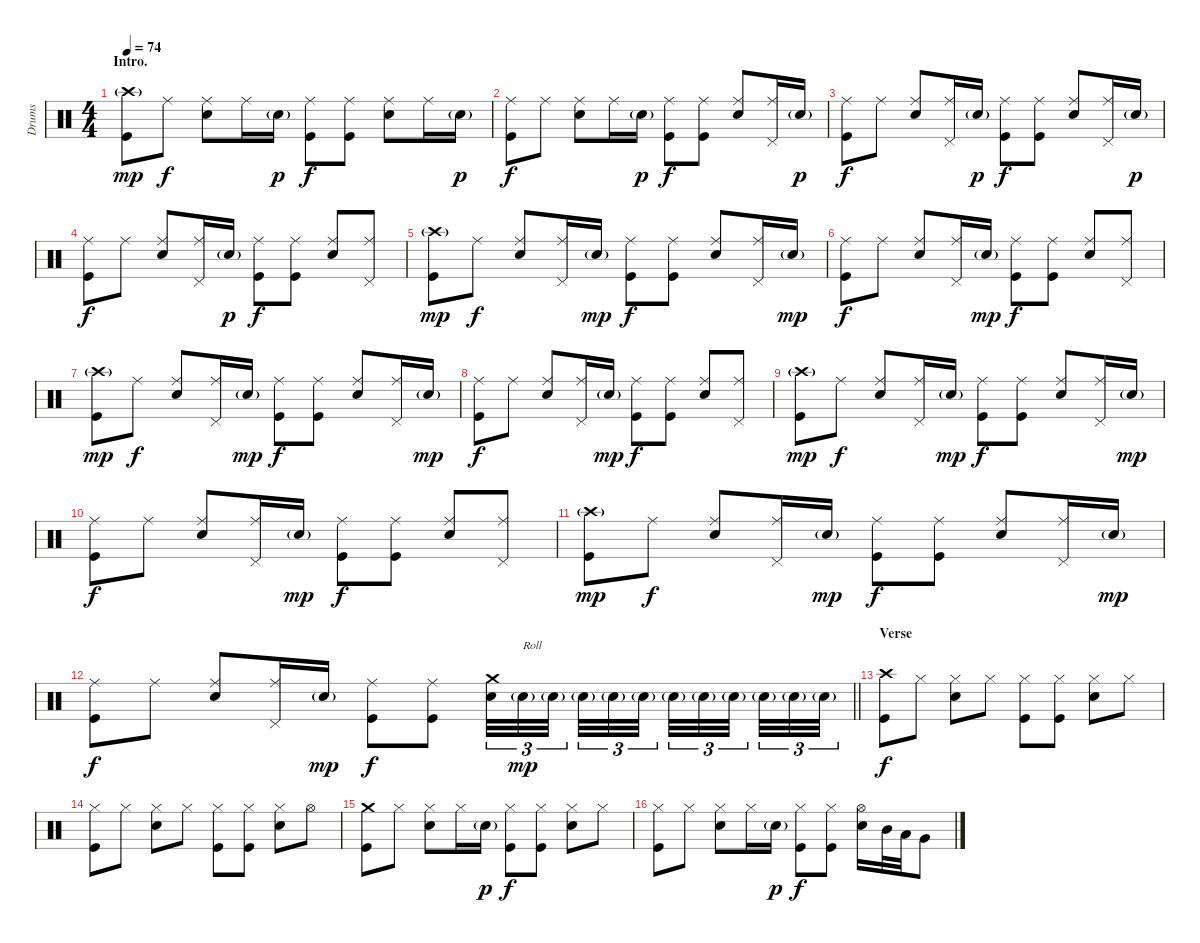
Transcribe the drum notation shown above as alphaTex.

\track ("Drums" "Drums") {instrument percussion}
\staff {score}
\articulation defaults
\ts (4 4)
\section ("" "Intro.")
\tempo 74
\clef neutral
\ks c
("Crash high (hit)"{g} "Kick (hit)").8{dy mp} "Ride (middle)".8{dy f} ("Ride (middle)" "Snare (hit) 2").8 "Ride (middle)".16 "Snare (hit) 2"{g}.16{dy p} ("Ride (middle)" "Kick (hit)").8{dy f} ("Ride (middle)" "Kick (hit)").8 ("Ride (middle)" "Snare (hit) 2").8 "Ride (middle)".16 "Snare (hit) 2"{g}.16{dy p} |
("Ride (middle)" "Kick (hit)").8{dy f} "Ride (middle)".8 ("Ride (middle)" "Snare (hit) 2").8 "Ride (middle)".16 "Snare (hit) 2"{g}.16{dy p} ("Ride (middle)" "Kick (hit)").8{dy f} ("Ride (middle)" "Kick (hit)").8 ("Ride (middle)" "Snare (hit) 2").8 ("Pedal Hi-Hat (hit)" "Ride (middle)").16 "Snare (hit) 2"{g}.16{dy p} |
("Ride (middle)" "Kick (hit)").8{dy f} "Ride (middle)".8 ("Ride (middle)" "Snare (hit) 2").8 ("Pedal Hi-Hat (hit)" "Ride (middle)").16 "Snare (hit) 2"{g}.16{dy p} ("Ride (middle)" "Kick (hit)").8{dy f} ("Ride (middle)" "Kick (hit)").8 ("Ride (middle)" "Snare (hit) 2").8 ("Pedal Hi-Hat (hit)" "Ride (middle)").16 "Snare (hit) 2"{g}.16{dy p} |
("Ride (middle)" "Kick (hit)").8{dy f} "Ride (middle)".8 ("Ride (middle)" "Snare (hit) 2").8 ("Pedal Hi-Hat (hit)" "Ride (middle)").16 "Snare (hit) 2"{g}.16{dy p} ("Ride (middle)" "Kick (hit)").8{dy f} ("Ride (middle)" "Kick (hit)").8 ("Ride (middle)" "Snare (hit) 2").8 ("Pedal Hi-Hat (hit)" "Ride (middle)").8 |
("Crash high (hit)"{g} "Kick (hit)").8{dy mp} "Ride (middle)".8{dy f} ("Ride (middle)" "Snare (hit) 2").8 ("Pedal Hi-Hat (hit)" "Ride (middle)").16 "Snare (hit) 2"{g}.16{dy mp} ("Ride (middle)" "Kick (hit)").8{dy f} ("Ride (middle)" "Kick (hit)").8 ("Ride (middle)" "Snare (hit) 2").8 ("Pedal Hi-Hat (hit)" "Ride (middle)").16 "Snare (hit) 2"{g}.16{dy mp} |
("Ride (middle)" "Kick (hit)").8{dy f} "Ride (middle)".8 ("Ride (middle)" "Snare (hit) 2").8 ("Pedal Hi-Hat (hit)" "Ride (middle)").16 "Snare (hit) 2"{g}.16{dy mp} ("Ride (middle)" "Kick (hit)").8{dy f} ("Ride (middle)" "Kick (hit)").8 ("Ride (middle)" "Snare (hit) 2").8 ("Pedal Hi-Hat (hit)" "Ride (middle)").8 |
("Crash high (hit)"{g} "Kick (hit)").8{dy mp} "Ride (middle)".8{dy f} ("Ride (middle)" "Snare (hit) 2").8 ("Pedal Hi-Hat (hit)" "Ride (middle)").16 "Snare (hit) 2"{g}.16{dy mp} ("Ride (middle)" "Kick (hit)").8{dy f} ("Ride (middle)" "Kick (hit)").8 ("Ride (middle)" "Snare (hit) 2").8 ("Pedal Hi-Hat (hit)" "Ride (middle)").16 "Snare (hit) 2"{g}.16{dy mp} |
("Ride (middle)" "Kick (hit)").8{dy f} "Ride (middle)".8 ("Ride (middle)" "Snare (hit) 2").8 ("Pedal Hi-Hat (hit)" "Ride (middle)").16 "Snare (hit) 2"{g}.16{dy mp} ("Ride (middle)" "Kick (hit)").8{dy f} ("Ride (middle)" "Kick (hit)").8 ("Ride (middle)" "Snare (hit) 2").8 ("Pedal Hi-Hat (hit)" "Ride (middle)").8 |
("Crash high (hit)"{g} "Kick (hit)").8{dy mp} "Ride (middle)".8{dy f} ("Ride (middle)" "Snare (hit) 2").8 ("Pedal Hi-Hat (hit)" "Ride (middle)").16 "Snare (hit) 2"{g}.16{dy mp} ("Ride (middle)" "Kick (hit)").8{dy f} ("Ride (middle)" "Kick (hit)").8 ("Ride (middle)" "Snare (hit) 2").8 ("Pedal Hi-Hat (hit)" "Ride (middle)").16 "Snare (hit) 2"{g}.16{dy mp} |
("Ride (middle)" "Kick (hit)").8{dy f} "Ride (middle)".8 ("Ride (middle)" "Snare (hit) 2").8 ("Pedal Hi-Hat (hit)" "Ride (middle)").16 "Snare (hit) 2"{g}.16{dy mp} ("Ride (middle)" "Kick (hit)").8{dy f} ("Ride (middle)" "Kick (hit)").8 ("Ride (middle)" "Snare (hit) 2").8 ("Pedal Hi-Hat (hit)" "Ride (middle)").8 |
("Crash high (hit)"{g} "Kick (hit)").8{dy mp} "Ride (middle)".8{dy f} ("Ride (middle)" "Snare (hit) 2").8 ("Pedal Hi-Hat (hit)" "Ride (middle)").16 "Snare (hit) 2"{g}.16{dy mp} ("Ride (middle)" "Kick (hit)").8{dy f} ("Ride (middle)" "Kick (hit)").8 ("Ride (middle)" "Snare (hit) 2").8 ("Pedal Hi-Hat (hit)" "Ride (middle)").16 "Snare (hit) 2"{g}.16{dy mp} |
\barLineRight lightlight
("Ride (middle)" "Kick (hit)").8{dy f} "Ride (middle)".8 ("Ride (middle)" "Snare (hit) 2").8 ("Pedal Hi-Hat (hit)" "Ride (middle)").16 "Snare (hit) 2"{g}.16{dy mp} ("Ride (middle)" "Kick (hit)").8{dy f} ("Ride (middle)" "Kick (hit)").8 ("Crash medium (hit)" "Electric Snare (hit)").32{tu (3 2)} "Snare (hit) 2"{g}.32{tu (3 2) txt "Roll" dy mp} "Snare (hit) 2"{g}.32{tu (3 2) beam splitsecondary} "Snare (hit) 2"{g}.32{tu (3 2)} "Snare (hit) 2"{g}.32{tu (3 2)} "Snare (hit) 2"{g}.32{tu (3 2) beam splitsecondary} "Snare (hit) 2"{g}.32{tu (3 2)} "Snare (hit) 2"{g}.32{tu (3 2)} "Snare (hit) 2"{g}.32{tu (3 2) beam splitsecondary} "Snare (hit) 2"{g}.32{tu (3 2)} "Snare (hit) 2"{g}.32{tu (3 2)} "Snare (hit) 2"{g}.32{tu (3 2)} |
\section ("" "Verse")
("Crash high (hit)" "Kick (hit)").8{dy f} "Hi-Hat (closed)".8 ("Hi-Hat (closed)" "Snare (hit) 2").8 "Hi-Hat (closed)".8 ("Hi-Hat (closed)" "Kick (hit)").8 ("Hi-Hat (closed)" "Kick (hit)").8 ("Hi-Hat (closed)" "Snare (hit) 2").8 "Hi-Hat (closed)".8 |
("Hi-Hat (closed)" "Kick (hit)").8 "Hi-Hat (closed)".8 ("Hi-Hat (closed)" "Snare (hit) 2").8 "Hi-Hat (closed)".8 ("Hi-Hat (closed)" "Kick (hit)").8 ("Hi-Hat (closed)" "Kick (hit)").8 ("Hi-Hat (closed)" "Snare (hit) 2").8 "Hi-Hat (open)".8 |
("Crash medium (hit)" "Kick (hit)").8 "Hi-Hat (closed)".8 ("Hi-Hat (closed)" "Snare (hit) 2").8 "Hi-Hat (closed)".16 "Snare (hit) 2"{g}.16{dy p} ("Hi-Hat (closed)" "Kick (hit)").8{dy f} ("Hi-Hat (closed)" "Kick (hit)").8 ("Hi-Hat (closed)" "Snare (hit) 2").8 "Hi-Hat (closed)".8 |
("Hi-Hat (closed)" "Kick (hit)").8 "Hi-Hat (closed)".8 ("Hi-Hat (closed)" "Snare (hit) 2").8 "Hi-Hat (closed)".16 "Snare (hit) 2"{g}.16{dy p} ("Hi-Hat (closed)" "Kick (hit)").8{dy f} ("Hi-Hat (closed)" "Kick (hit)").8 ("Hi-Hat (open)" "Snare (hit) 2").16 "Mid Tom (hit)".32 "Low Tom (hit)".32 "Very Low Tom (hit)".8
